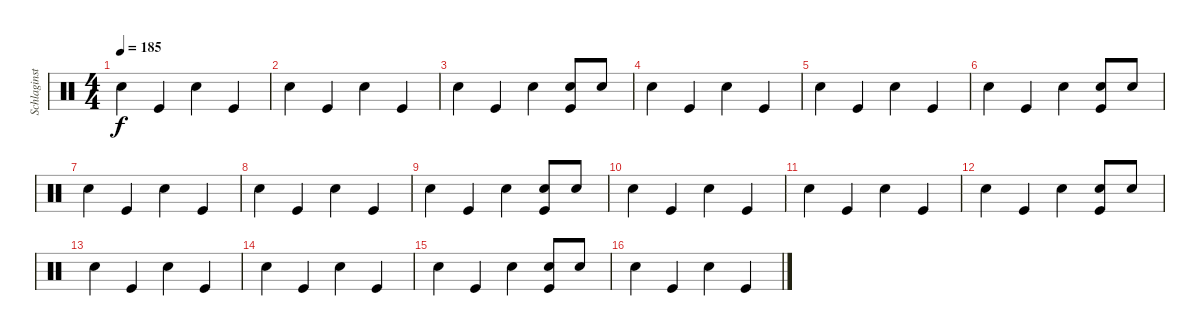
\track ("Schlaginstrumente - Auswahl" "Schlaginst") {instrument percussion}
\staff {score}
\articulation defaults
\ts (4 4)
\tempo 185
\clef neutral
\ks c "Snare (hit) 2".4{dy f} "Kick (hit)".4 "Snare (hit) 2".4 "Kick (hit)".4
|
"Snare (hit) 2".4 "Kick (hit)".4 "Snare (hit) 2".4 "Kick (hit)".4 |
"Snare (hit) 2".4 "Kick (hit)".4 "Snare (hit) 2".4 ("Kick (hit)" "Snare (hit) 2").8 "Snare (hit) 2".8 |
"Snare (hit) 2".4 "Kick (hit)".4 "Snare (hit) 2".4 "Kick (hit)".4 |
"Snare (hit) 2".4 "Kick (hit)".4 "Snare (hit) 2".4 "Kick (hit)".4 |
"Snare (hit) 2".4 "Kick (hit)".4 "Snare (hit) 2".4 ("Kick (hit)" "Snare (hit) 2").8 "Snare (hit) 2".8 |
"Snare (hit) 2".4 "Kick (hit)".4 "Snare (hit) 2".4 "Kick (hit)".4 |
"Snare (hit) 2".4 "Kick (hit)".4 "Snare (hit) 2".4 "Kick (hit)".4 |
"Snare (hit) 2".4 "Kick (hit)".4 "Snare (hit) 2".4 ("Kick (hit)" "Snare (hit) 2").8 "Snare (hit) 2".8 |
"Snare (hit) 2".4 "Kick (hit)".4 "Snare (hit) 2".4 "Kick (hit)".4 |
"Snare (hit) 2".4 "Kick (hit)".4 "Snare (hit) 2".4 "Kick (hit)".4 |
"Snare (hit) 2".4 "Kick (hit)".4 "Snare (hit) 2".4 ("Kick (hit)" "Snare (hit) 2").8 "Snare (hit) 2".8 |
"Snare (hit) 2".4 "Kick (hit)".4 "Snare (hit) 2".4 "Kick (hit)".4 |
"Snare (hit) 2".4 "Kick (hit)".4 "Snare (hit) 2".4 "Kick (hit)".4 |
"Snare (hit) 2".4 "Kick (hit)".4 "Snare (hit) 2".4 ("Kick (hit)" "Snare (hit) 2").8 "Snare (hit) 2".8 |
"Snare (hit) 2".4 "Kick (hit)".4 "Snare (hit) 2".4 "Kick (hit)".4
